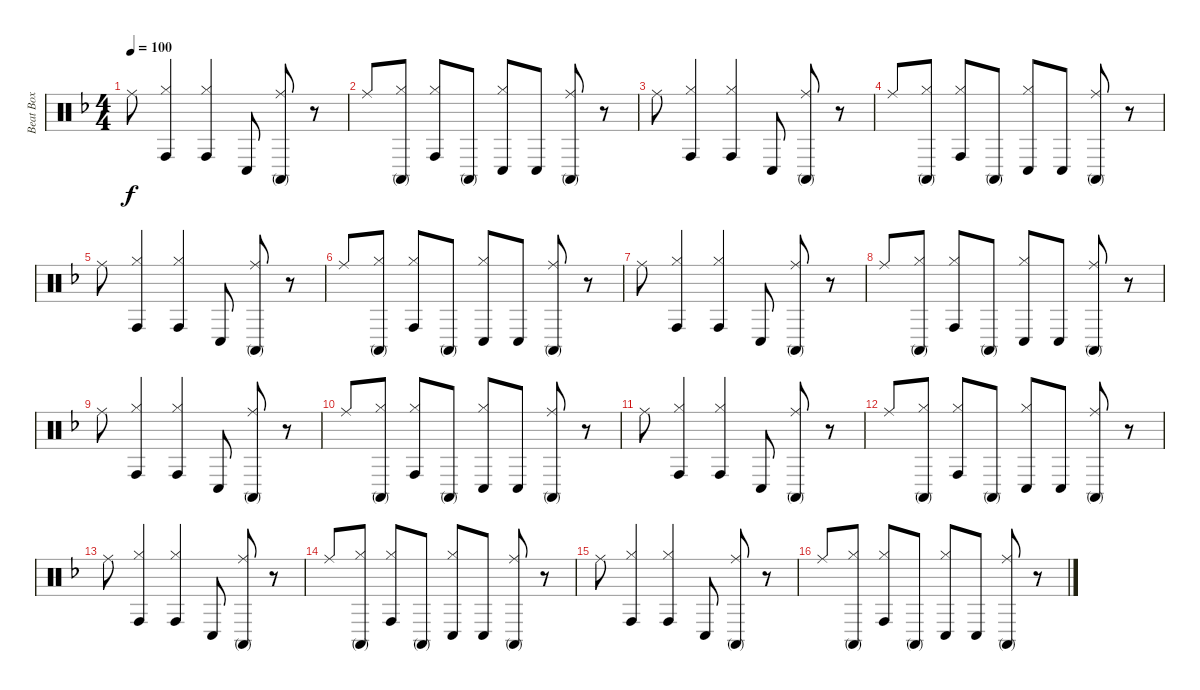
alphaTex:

\track ("Beat Box" "Beat Box") {instrument percussion}
\staff {score}
\articulation defaults
\ts (4 4)
\tempo 100
\clef neutral
\ks dminor "Ride (middle)".8{dy f}
("Hi-Hat (closed)" "Conga high (hit)").4 ("Hi-Hat (closed)" "Conga high (hit)").4 "Conga low (hit)".8 ("Ride (middle)" "Conga high (mute)").8 r.8 |
"Ride (middle)".8 ("Hi-Hat (closed)" "Conga high (mute)").8 ("Hi-Hat (closed)" "Conga high (hit)").8 "Conga high (mute)".8 ("Hi-Hat (closed)" "Conga low (hit)").8 "Conga low (hit)".8 ("Ride (middle)" "Conga high (mute)").8 r.8 |
"Ride (middle)".8 ("Hi-Hat (closed)" "Conga high (hit)").4 ("Hi-Hat (closed)" "Conga high (hit)").4 "Conga low (hit)".8 ("Ride (middle)" "Conga high (mute)").8 r.8 |
"Ride (middle)".8 ("Hi-Hat (closed)" "Conga high (mute)").8 ("Hi-Hat (closed)" "Conga high (hit)").8 "Conga high (mute)".8 ("Hi-Hat (closed)" "Conga low (hit)").8 "Conga low (hit)".8 ("Ride (middle)" "Conga high (mute)").8 r.8 |
"Ride (middle)".8 ("Hi-Hat (closed)" "Conga high (hit)").4 ("Hi-Hat (closed)" "Conga high (hit)").4 "Conga low (hit)".8 ("Ride (middle)" "Conga high (mute)").8 r.8 |
"Ride (middle)".8 ("Hi-Hat (closed)" "Conga high (mute)").8 ("Hi-Hat (closed)" "Conga high (hit)").8 "Conga high (mute)".8 ("Hi-Hat (closed)" "Conga low (hit)").8 "Conga low (hit)".8 ("Ride (middle)" "Conga high (mute)").8 r.8 |
"Ride (middle)".8 ("Hi-Hat (closed)" "Conga high (hit)").4 ("Hi-Hat (closed)" "Conga high (hit)").4 "Conga low (hit)".8 ("Ride (middle)" "Conga high (mute)").8 r.8 |
"Ride (middle)".8 ("Hi-Hat (closed)" "Conga high (mute)").8 ("Hi-Hat (closed)" "Conga high (hit)").8 "Conga high (mute)".8 ("Hi-Hat (closed)" "Conga low (hit)").8 "Conga low (hit)".8 ("Ride (middle)" "Conga high (mute)").8 r.8 |
"Ride (middle)".8 ("Hi-Hat (closed)" "Conga high (hit)").4 ("Hi-Hat (closed)" "Conga high (hit)").4 "Conga low (hit)".8 ("Ride (middle)" "Conga high (mute)").8 r.8 |
"Ride (middle)".8 ("Hi-Hat (closed)" "Conga high (mute)").8 ("Hi-Hat (closed)" "Conga high (hit)").8 "Conga high (mute)".8 ("Hi-Hat (closed)" "Conga low (hit)").8 "Conga low (hit)".8 ("Ride (middle)" "Conga high (mute)").8 r.8 |
"Ride (middle)".8 ("Hi-Hat (closed)" "Conga high (hit)").4 ("Hi-Hat (closed)" "Conga high (hit)").4 "Conga low (hit)".8 ("Ride (middle)" "Conga high (mute)").8 r.8 |
"Ride (middle)".8 ("Hi-Hat (closed)" "Conga high (mute)").8 ("Hi-Hat (closed)" "Conga high (hit)").8 "Conga high (mute)".8 ("Hi-Hat (closed)" "Conga low (hit)").8 "Conga low (hit)".8 ("Ride (middle)" "Conga high (mute)").8 r.8 |
"Ride (middle)".8 ("Hi-Hat (closed)" "Conga high (hit)").4 ("Hi-Hat (closed)" "Conga high (hit)").4 "Conga low (hit)".8 ("Ride (middle)" "Conga high (mute)").8 r.8 |
"Ride (middle)".8 ("Hi-Hat (closed)" "Conga high (mute)").8 ("Hi-Hat (closed)" "Conga high (hit)").8 "Conga high (mute)".8 ("Hi-Hat (closed)" "Conga low (hit)").8 "Conga low (hit)".8 ("Ride (middle)" "Conga high (mute)").8 r.8 |
"Ride (middle)".8 ("Hi-Hat (closed)" "Conga high (hit)").4 ("Hi-Hat (closed)" "Conga high (hit)").4 "Conga low (hit)".8 ("Ride (middle)" "Conga high (mute)").8 r.8 |
"Ride (middle)".8 ("Hi-Hat (closed)" "Conga high (mute)").8 ("Hi-Hat (closed)" "Conga high (hit)").8 "Conga high (mute)".8 ("Hi-Hat (closed)" "Conga low (hit)").8 "Conga low (hit)".8 ("Ride (middle)" "Conga high (mute)").8 r.8
